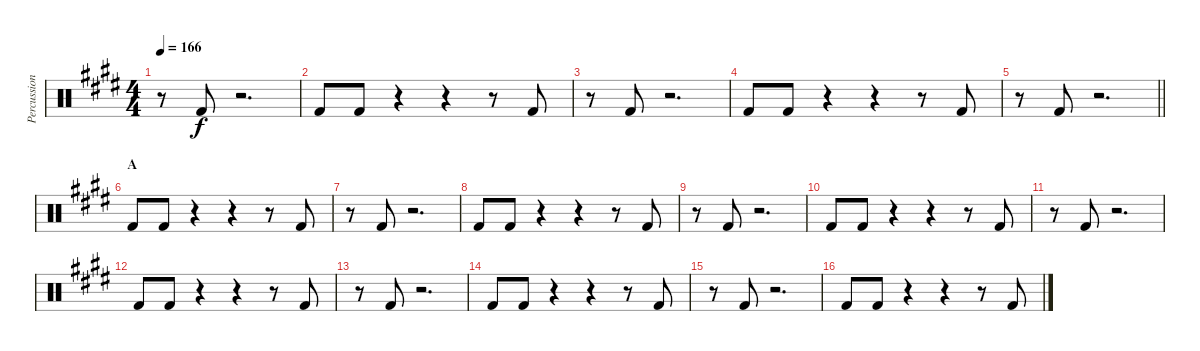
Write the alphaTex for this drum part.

\track ("Percussion - Other Again" "Percussion") {instrument percussion}
\staff {score}
\articulation defaults
\ts (4 4)
\tempo 166
\clef neutral
\ks e
r.8{dy f} "Kick (hit) 2".8 r.2{d} |
"Kick (hit) 2".8 "Kick (hit) 2".8 r.4 r.4 r.8 "Kick (hit) 2".8 |
r.8 "Kick (hit) 2".8 r.2{d} |
"Kick (hit) 2".8 "Kick (hit) 2".8 r.4 r.4 r.8 "Kick (hit) 2".8 |
\barLineRight lightlight
r.8 "Kick (hit) 2".8 r.2{d} |
\section ("" "A")
"Kick (hit) 2".8 "Kick (hit) 2".8 r.4 r.4 r.8 "Kick (hit) 2".8 |
r.8 "Kick (hit) 2".8 r.2{d} |
"Kick (hit) 2".8 "Kick (hit) 2".8 r.4 r.4 r.8 "Kick (hit) 2".8 |
r.8 "Kick (hit) 2".8 r.2{d} |
"Kick (hit) 2".8 "Kick (hit) 2".8 r.4 r.4 r.8 "Kick (hit) 2".8 |
r.8 "Kick (hit) 2".8 r.2{d} |
"Kick (hit) 2".8 "Kick (hit) 2".8 r.4 r.4 r.8 "Kick (hit) 2".8 |
r.8 "Kick (hit) 2".8 r.2{d} |
"Kick (hit) 2".8 "Kick (hit) 2".8 r.4 r.4 r.8 "Kick (hit) 2".8 |
r.8 "Kick (hit) 2".8 r.2{d} |
"Kick (hit) 2".8 "Kick (hit) 2".8 r.4 r.4 r.8 "Kick (hit) 2".8
